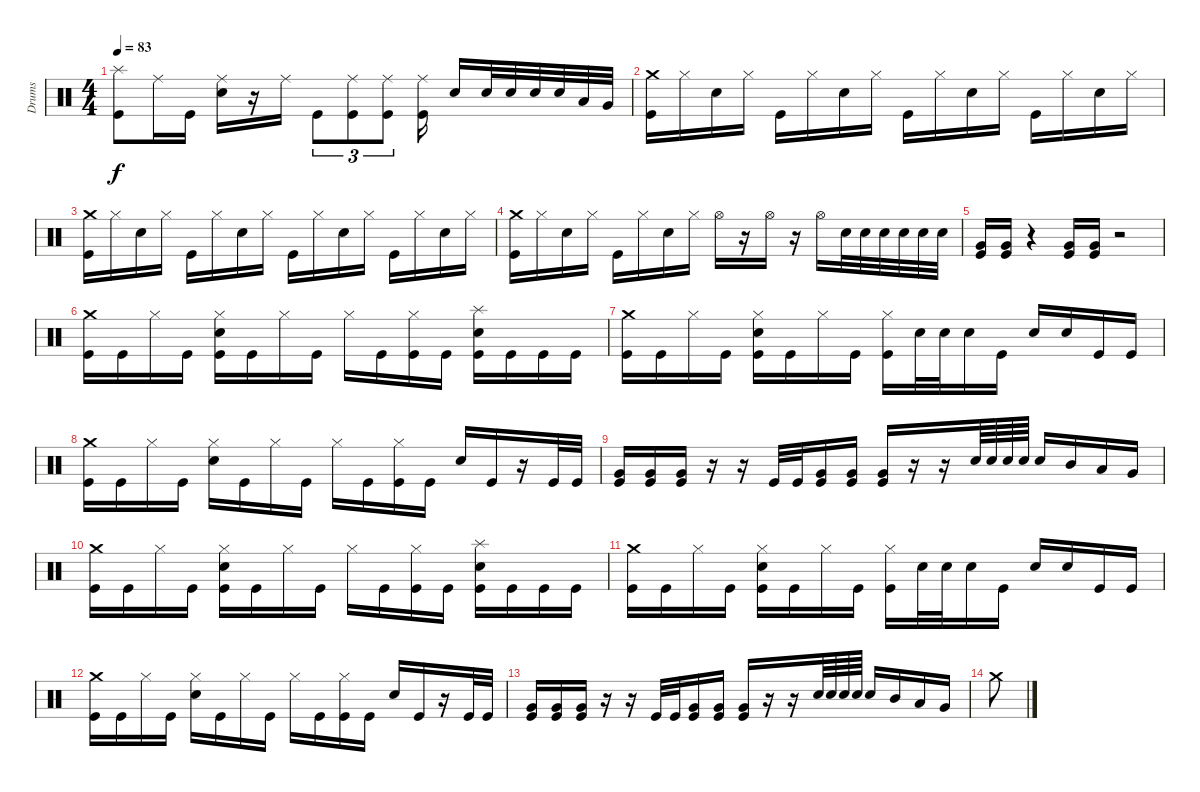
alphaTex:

\track ("Drums" "Drums") {instrument percussion}
\staff {score}
\articulation defaults
\ts (4 4)
\tempo 83
\clef neutral
\ks c
("Splash (hit)" "Kick (hit)").8{dy f} "Ride (middle)".16 "Kick (hit)".16 ("Ride (middle)" "Snare (hit) 2").16 r.16 "Ride (middle)".16 "Kick (hit)".8{tu (3 2)} ("Ride (middle)" "Kick (hit)").8{tu (3 2)} ("Ride (middle)" "Kick (hit)").8{tu (3 2)} ("Ride (middle)" "Kick (hit)").16 "Snare (hit) 2".16 "Snare (hit) 2".32 "Snare (hit) 2".32 "Snare (hit) 2".32 "Snare (hit) 2".32 "Low Tom (hit)".32 "Very Low Tom (hit)".32 |
("Crash medium (hit)" "Kick (hit)").16 "Hi-Hat (closed)".16 "Snare (hit) 2".16 "Hi-Hat (closed)".16 "Kick (hit)".16 "Hi-Hat (closed)".16 "Snare (hit) 2".16 "Hi-Hat (closed)".16 "Kick (hit)".16 "Hi-Hat (closed)".16 "Snare (hit) 2".16 "Hi-Hat (closed)".16 "Kick (hit)".16 "Hi-Hat (closed)".16 "Snare (hit) 2".16 "Hi-Hat (closed)".16 |
("Crash medium (hit)" "Kick (hit)").16 "Hi-Hat (closed)".16 "Snare (hit) 2".16 "Hi-Hat (closed)".16 "Kick (hit)".16 "Hi-Hat (closed)".16 "Snare (hit) 2".16 "Hi-Hat (closed)".16 "Kick (hit)".16 "Hi-Hat (closed)".16 "Snare (hit) 2".16 "Hi-Hat (closed)".16 "Kick (hit)".16 "Hi-Hat (closed)".16 "Snare (hit) 2".16 "Hi-Hat (closed)".16 |
("Crash medium (hit)" "Kick (hit)").16 "Hi-Hat (closed)".16 "Snare (hit) 2".16 "Hi-Hat (closed)".16 "Kick (hit)".16 "Hi-Hat (closed)".16 "Snare (hit) 2".16 "Hi-Hat (closed)".16 "Hi-Hat (open)".16 r.16 "Hi-Hat (open)".16 r.16 "Hi-Hat (open)".16 "Snare (hit) 2".32 "Snare (hit) 2".32 "Snare (hit) 2".32 "Snare (hit) 2".32 "Snare (hit) 2".32 "Snare (hit) 2".32 |
("Very Low Tom (hit)" "Kick (hit)").16 ("Very Low Tom (hit)" "Kick (hit)").16 r.4 ("Very Low Tom (hit)" "Kick (hit)").16 ("Very Low Tom (hit)" "Kick (hit)").16 r.2 |
("Crash medium (hit)" "Kick (hit)").16 "Kick (hit)".16 "Hi-Hat (closed)".16 "Kick (hit)".16 ("Hi-Hat (closed)" "Snare (hit) 2" "Kick (hit)").16 "Kick (hit)".16 "Hi-Hat (closed)".16 "Kick (hit)".16 "Hi-Hat (closed)".16 "Kick (hit)".16 ("Hi-Hat (closed)" "Kick (hit)").16 "Kick (hit)".16 ("Splash (hit)" "Snare (hit) 2" "Kick (hit)").16 "Kick (hit)".16 "Kick (hit)".16 "Kick (hit)".16 |
("Crash medium (hit)" "Kick (hit)").16 "Kick (hit)".16 "Hi-Hat (closed)".16 "Kick (hit)".16 ("Hi-Hat (closed)" "Snare (hit) 2" "Kick (hit)").16 "Kick (hit)".16 "Hi-Hat (closed)".16 "Kick (hit)".16 ("Hi-Hat (closed)" "Kick (hit)").16 "Snare (hit) 2".32 "Snare (hit) 2".32 "Snare (hit) 2".16 "Kick (hit)".16 "Snare (hit) 2".16 "Snare (hit) 2".16 "Kick (hit)".16 "Kick (hit)".16 |
("Crash medium (hit)" "Kick (hit)").16 "Kick (hit)".16 "Hi-Hat (closed)".16 "Kick (hit)".16 ("Hi-Hat (closed)" "Snare (hit) 2").16 "Kick (hit)".16 "Hi-Hat (closed)".16 "Kick (hit)".16 "Hi-Hat (closed)".16 "Kick (hit)".16 ("Hi-Hat (closed)" "Kick (hit)").16 "Kick (hit)".16 "Snare (hit) 2".16 "Kick (hit)".16 r.16 "Kick (hit)".32 "Kick (hit)".32 |
("Very Low Tom (hit)" "Kick (hit)").16 ("Very Low Tom (hit)" "Kick (hit)").16 ("Very Low Tom (hit)" "Kick (hit)").16 r.16 r.16 "Kick (hit)".32 "Kick (hit)".32 ("Very Low Tom (hit)" "Kick (hit)").16 ("Very Low Tom (hit)" "Kick (hit)").16 ("Very Low Tom (hit)" "Kick (hit)").16 r.16 r.16 "Snare (hit) 2".64 "Snare (hit) 2".64 "Snare (hit) 2".64 "Snare (hit) 2".64 "Snare (hit) 2".16 "Mid Tom (hit)".16 "Low Tom (hit)".16 "Very Low Tom (hit)".16 |
("Crash medium (hit)" "Kick (hit)").16 "Kick (hit)".16 "Hi-Hat (closed)".16 "Kick (hit)".16 ("Hi-Hat (closed)" "Snare (hit) 2" "Kick (hit)").16 "Kick (hit)".16 "Hi-Hat (closed)".16 "Kick (hit)".16 "Hi-Hat (closed)".16 "Kick (hit)".16 ("Hi-Hat (closed)" "Kick (hit)").16 "Kick (hit)".16 ("Splash (hit)" "Snare (hit) 2" "Kick (hit)").16 "Kick (hit)".16 "Kick (hit)".16 "Kick (hit)".16 |
("Crash medium (hit)" "Kick (hit)").16 "Kick (hit)".16 "Hi-Hat (closed)".16 "Kick (hit)".16 ("Hi-Hat (closed)" "Snare (hit) 2" "Kick (hit)").16 "Kick (hit)".16 "Hi-Hat (closed)".16 "Kick (hit)".16 ("Hi-Hat (closed)" "Kick (hit)").16 "Snare (hit) 2".32 "Snare (hit) 2".32 "Snare (hit) 2".16 "Kick (hit)".16 "Snare (hit) 2".16 "Snare (hit) 2".16 "Kick (hit)".16 "Kick (hit)".16 |
("Crash medium (hit)" "Kick (hit)").16 "Kick (hit)".16 "Hi-Hat (closed)".16 "Kick (hit)".16 ("Hi-Hat (closed)" "Snare (hit) 2").16 "Kick (hit)".16 "Hi-Hat (closed)".16 "Kick (hit)".16 "Hi-Hat (closed)".16 "Kick (hit)".16 ("Hi-Hat (closed)" "Kick (hit)").16 "Kick (hit)".16 "Snare (hit) 2".16 "Kick (hit)".16 r.16 "Kick (hit)".32 "Kick (hit)".32 |
("Very Low Tom (hit)" "Kick (hit)").16 ("Very Low Tom (hit)" "Kick (hit)").16 ("Very Low Tom (hit)" "Kick (hit)").16 r.16 r.16 "Kick (hit)".32 "Kick (hit)".32 ("Very Low Tom (hit)" "Kick (hit)").16 ("Very Low Tom (hit)" "Kick (hit)").16 ("Very Low Tom (hit)" "Kick (hit)").16 r.16 r.16 "Snare (hit) 2".64 "Snare (hit) 2".64 "Snare (hit) 2".64 "Snare (hit) 2".64 "Snare (hit) 2".16 "Mid Tom (hit)".16 "Low Tom (hit)".16 "Very Low Tom (hit)".16 |
"Crash medium (hit)".8
